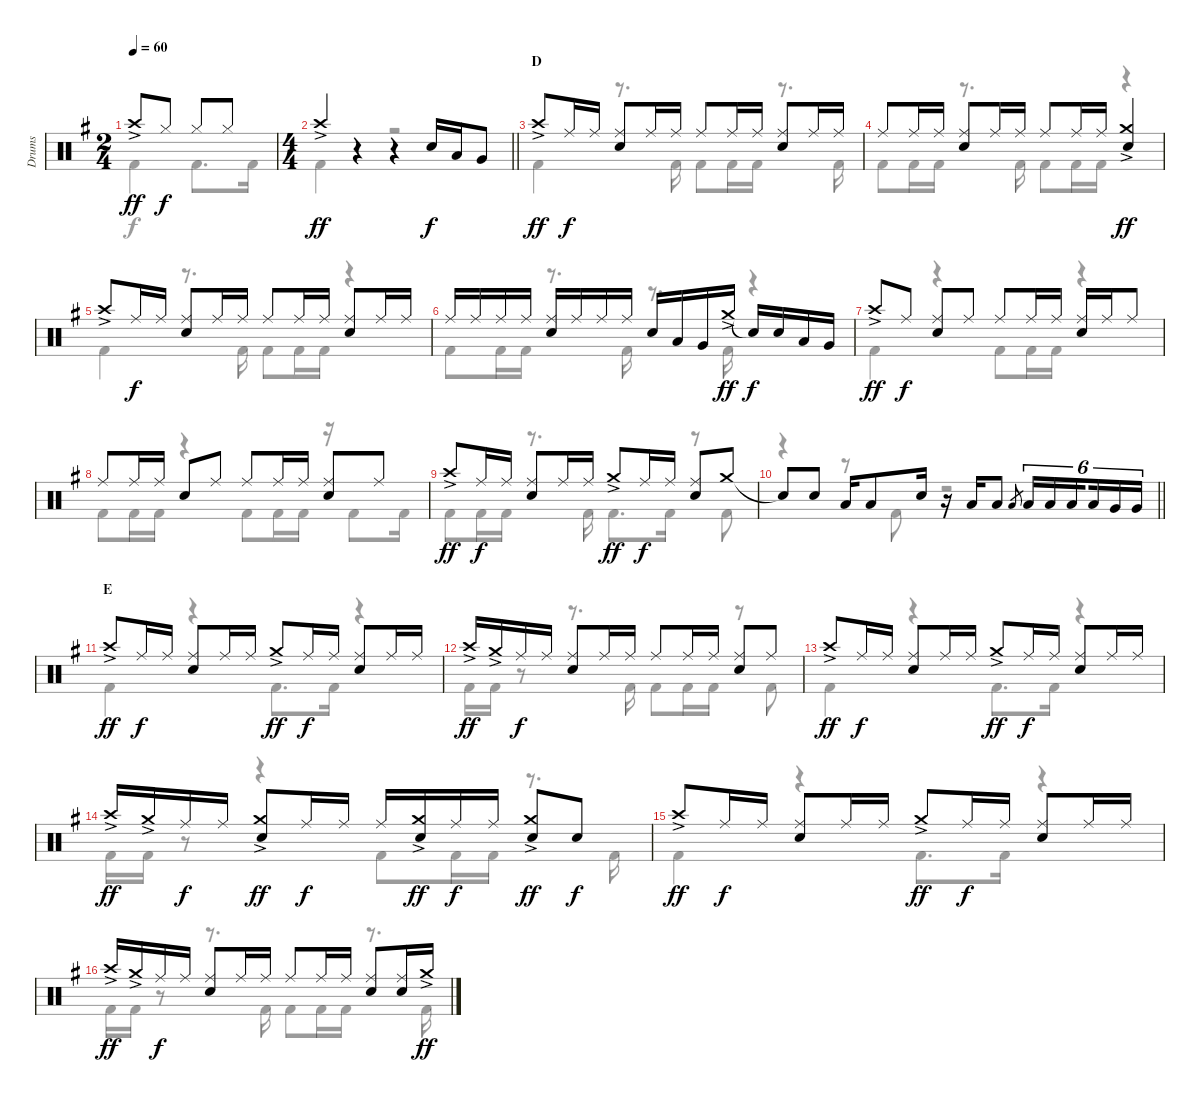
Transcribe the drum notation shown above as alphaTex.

\track ("Drums" "Drums") {instrument percussion}
\staff {score}
\articulation defaults
\voice
\ts (2 4)
\tempo 60
\clef neutral
\ks g "Crash high (hit)"{ac}.8{dy ff} "Hi-Hat (closed)".8{dy f} "Hi-Hat (closed)".8 "Hi-Hat (closed)".8
|
\ts (4 4)
\barLineRight lightlight "Crash high (hit)"{ac}.4{dy ff}
r.4 r.4 "Snare (hit) 2".16{dy f} "Low Tom (hit)".16 "Very Low Tom (hit)".8 |
\section ("" "D")
"Crash high (hit)"{ac}.8{dy ff} "Ride (middle)".16{dy f} "Ride (middle)".16 ("Ride (middle)" "Snare (hit) 2").8 "Ride (middle)".16 "Ride (middle)".16 "Ride (middle)".8 "Ride (middle)".16 "Ride (middle)".16 ("Ride (middle)" "Snare (hit) 2").8 "Ride (middle)".16 "Ride (middle)".16 |
"Ride (middle)".8 "Ride (middle)".16 "Ride (middle)".16 ("Ride (middle)" "Snare (hit) 2").8 "Ride (middle)".16 "Ride (middle)".16 "Ride (middle)".8 "Ride (middle)".16 "Ride (middle)".16 ("Crash medium (hit)"{ac} "Snare (hit) 2").4{dy ff} |
"Crash high (hit)"{ac}.8 "Ride (middle)".16{dy f} "Ride (middle)".16 ("Ride (middle)" "Snare (hit) 2").8 "Ride (middle)".16 "Ride (middle)".16 "Ride (middle)".8 "Ride (middle)".16 "Ride (middle)".16 ("Ride (middle)" "Snare (hit) 2").8 "Ride (middle)".16 "Ride (middle)".16 |
"Ride (middle)".16 "Ride (middle)".16 "Ride (middle)".16 "Ride (middle)".16 ("Ride (middle)" "Snare (hit) 2").16 "Ride (middle)".16 "Ride (middle)".16 "Ride (middle)".16 "Snare (hit) 2".16 "Low Tom (hit)".16 "Very Low Tom (hit)".16 "Crash medium (hit)"{ac}.16{dy ff} "Snare (hit)"{t}.16{dy f} "Snare (hit) 2".16 "Low Tom (hit)".16 "Very Low Tom (hit)".16 |
"Crash high (hit)"{ac}.8{dy ff} "Ride (middle)".8{dy f} ("Ride (middle)" "Snare (hit) 2").8 "Ride (middle)".8 "Ride (middle)".8 "Ride (middle)".16 "Ride (middle)".16 ("Ride (middle)" "Snare (hit) 2").16 "Ride (middle)".16 "Ride (middle)".8 |
"Ride (middle)".8 "Ride (middle)".16 "Ride (middle)".16 "Snare (hit) 2".8 "Ride (middle)".8 "Ride (middle)".8 "Ride (middle)".16 "Ride (middle)".16 ("Ride (middle)" "Snare (hit) 2").8 "Ride (middle)".8 |
"Crash high (hit)"{ac}.8{dy ff} "Ride (middle)".16{dy f} "Ride (middle)".16 ("Ride (middle)" "Snare (hit) 2").8 "Ride (middle)".16 "Ride (middle)".16 "Crash medium (hit)"{ac}.8{dy ff} "Ride (middle)".16{dy f} "Ride (middle)".16 ("Ride (middle)" "Snare (hit) 2").8 "Crash medium (hit)".8 |
\barLineRight lightlight "Snare (hit)"{t}.8 "Snare (hit) 2".8 "Low Tom (hit)".16 "Low Tom (hit)".8 "Snare (hit) 2".16
r.16 "Low Tom (hit)".16 "Low Tom (hit)".8 "Low Tom (hit)".8{gr} "Low Tom (hit)".16{tu (6 4)} "Low Tom (hit)".16{tu (6 4)} "Low Tom (hit)".16{tu (6 4) beam splitsecondary} "Low Tom (hit)".16{tu (6 4)} "Very Low Tom (hit)".16{tu (6 4)} "Very Low Tom (hit)".16{tu (6 4)} |
\section ("" "E")
"Crash high (hit)"{ac}.8{dy ff} "Ride (middle)".16{dy f} "Ride (middle)".16 ("Ride (middle)" "Snare (hit) 2").8 "Ride (middle)".16 "Ride (middle)".16 "Crash medium (hit)"{ac}.8{dy ff} "Ride (middle)".16{dy f} "Ride (middle)".16 ("Ride (middle)" "Snare (hit) 2").8 "Ride (middle)".16 "Ride (middle)".16 |
"Crash high (hit)"{ac}.16{dy ff} "Crash medium (hit)"{ac}.16 "Ride (middle)".16{dy f} "Ride (middle)".16 ("Ride (middle)" "Snare (hit) 2").8 "Ride (middle)".16 "Ride (middle)".16 "Ride (middle)".8 "Ride (middle)".16 "Ride (middle)".16 ("Ride (middle)" "Snare (hit) 2").8 "Ride (middle)".8 |
"Crash high (hit)"{ac}.8{dy ff} "Ride (middle)".16{dy f} "Ride (middle)".16 ("Ride (middle)" "Snare (hit) 2").8 "Ride (middle)".16 "Ride (middle)".16 "Crash medium (hit)"{ac}.8{dy ff} "Ride (middle)".16{dy f} "Ride (middle)".16 ("Ride (middle)" "Snare (hit) 2").8 "Ride (middle)".16 "Ride (middle)".16 |
"Crash high (hit)"{ac}.16{dy ff} "Crash medium (hit)"{ac}.16 "Ride (middle)".16{dy f} "Ride (middle)".16 ("Crash medium (hit)"{ac} "Snare (hit) 2").8{dy ff} "Ride (middle)".16{dy f} "Ride (middle)".16 "Ride (middle)".16 ("Crash medium (hit)"{ac} "Snare (hit) 2").16{dy ff} "Ride (middle)".16{dy f} "Ride (middle)".16 ("Crash medium (hit)"{ac} "Snare (hit) 2").8{dy ff} "Snare (hit) 2".8{dy f} |
"Crash high (hit)"{ac}.8{dy ff} "Ride (middle)".16{dy f} "Ride (middle)".16 ("Ride (middle)" "Snare (hit) 2").8 "Ride (middle)".16 "Ride (middle)".16 "Crash medium (hit)"{ac}.8{dy ff} "Ride (middle)".16{dy f} "Ride (middle)".16 ("Ride (middle)" "Snare (hit) 2").8 "Ride (middle)".16 "Ride (middle)".16 |
"Crash high (hit)"{ac}.16{dy ff} "Crash medium (hit)"{ac}.16 "Ride (middle)".16{dy f} "Ride (middle)".16 ("Ride (middle)" "Snare (hit) 2").8 "Ride (middle)".16 "Ride (middle)".16 "Ride (middle)".8 "Ride (middle)".16 "Ride (middle)".16 ("Ride (middle)" "Snare (hit) 2").8 ("Ride (middle)" "Snare (hit) 2").16 "Crash medium (hit)"{ac}.16{dy ff}
\voice
\clef neutral
\ottava regular
\simile none
\ks g "Kick (hit) 2".4{dy f} "Kick (hit) 2".8{d} "Kick (hit) 2".16
|
\barLineRight lightlight "Kick (hit) 2".4
r.4 r.2 |
"Kick (hit) 2".4 r.8{d} "Kick (hit) 2".16 "Kick (hit) 2".8 "Kick (hit) 2".16 "Kick (hit) 2".16 r.8{d} "Kick (hit) 2".16 |
"Kick (hit) 2".8 "Kick (hit) 2".16 "Kick (hit) 2".16 r.8{d} "Kick (hit) 2".16 "Kick (hit) 2".8 "Kick (hit) 2".16 "Kick (hit) 2".16 r.4 |
"Kick (hit) 2".4 r.8{d} "Kick (hit) 2".16 "Kick (hit) 2".8 "Kick (hit) 2".16 "Kick (hit) 2".16 r.4 |
"Kick (hit) 2".8 "Kick (hit) 2".16 "Kick (hit) 2".16 r.8{d} "Kick (hit) 2".16 r.8{d} "Kick (hit) 2".16 r.4 |
"Kick (hit) 2".4 r.4 "Kick (hit) 2".8 "Kick (hit) 2".16 "Kick (hit) 2".16 r.4 |
"Kick (hit) 2".8 "Kick (hit) 2".16 "Kick (hit) 2".16 r.4 "Kick (hit) 2".8 "Kick (hit) 2".16 "Kick (hit) 2".16 r.16 "Kick (hit) 2".8 "Kick (hit) 2".16 |
"Kick (hit) 2".8 "Kick (hit) 2".16 "Kick (hit) 2".16 r.8{d} "Kick (hit) 2".16 "Kick (hit) 2".8{d} "Kick (hit) 2".16 r.8 "Kick (hit) 2".8 |
\barLineRight lightlight
r.4 r.8 "Kick (hit) 2".8 r.2 |
"Kick (hit) 2".4 r.4 "Kick (hit) 2".8{d} "Kick (hit) 2".16 r.4 |
"Kick (hit) 2".16 "Kick (hit) 2".16 r.8 r.8{d} "Kick (hit) 2".16 "Kick (hit) 2".8 "Kick (hit) 2".16 "Kick (hit) 2".16 r.8 "Kick (hit) 2".8 |
"Kick (hit) 2".4 r.4 "Kick (hit) 2".8{d} "Kick (hit) 2".16 r.4 |
"Kick (hit) 2".16 "Kick (hit) 2".16 r.8 r.4 "Kick (hit) 2".8 "Kick (hit) 2".16 "Kick (hit) 2".16 r.8{d} "Kick (hit) 2".16 |
"Kick (hit) 2".4 r.4 "Kick (hit) 2".8{d} "Kick (hit) 2".16 r.4 |
"Kick (hit) 2".16 "Kick (hit) 2".16 r.8 r.8{d} "Kick (hit) 2".16 "Kick (hit) 2".8 "Kick (hit) 2".16 "Kick (hit) 2".16 r.8{d} "Kick (hit) 2".16
